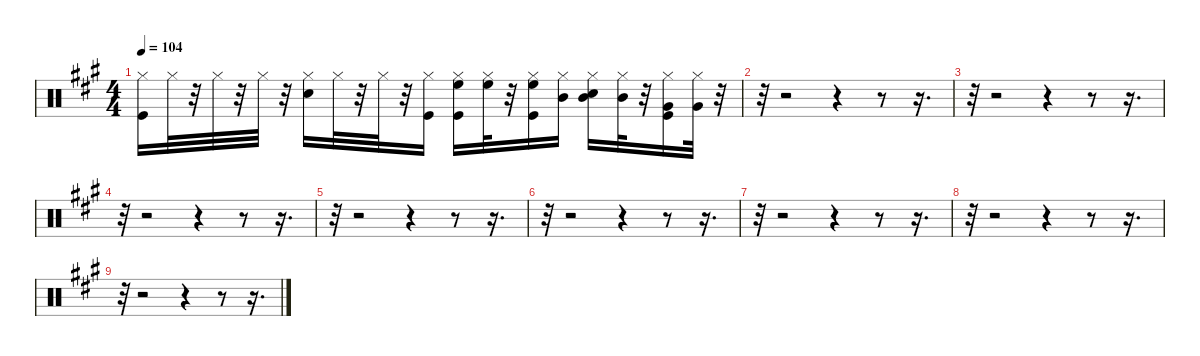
\defaultSystemsLayout 4
\hideDynamics
\bracketExtendMode nobrackets
\singleTrackTrackNamePolicy hidden
\multiTrackTrackNamePolicy hidden
\otherSystemsTrackNameOrientation horizontal
\track ("Drums   " "drm.") {instrument percussion}
\staff {score}
\articulation defaults
\ts (4 4)
\tempo 104
\clef neutral
\ks a
("Kick (hit)"{acc forcenatural} "Hi-Hat (closed)"{acc forcenatural}).16{dy f beam Down} "Hi-Hat (closed)"{acc forcenatural}.32{dy mp beam Down} r.32{beam Down} "Hi-Hat (closed)"{acc forcenatural}.32{dy f beam Down} r.32{beam Down} "Hi-Hat (closed)"{acc forcenatural}.32{beam Down} r.32{beam Down} ("Snare (hit) 2"{acc forcenatural} "Hi-Hat (closed)"{acc forcenatural}).16{dy fff beam Down} "Hi-Hat (closed)"{acc forcenatural}.32{dy mp beam Down} r.32{beam Down} "Hi-Hat (closed)"{acc forcenatural}.32{dy f beam Down} r.32{beam Down} ("Kick (hit)"{acc forcenatural} "Hi-Hat (closed)"{acc forcenatural}).16{dy mf beam Down} ("Kick (hit)"{acc forcenatural} "Hi-Hat (closed)"{acc forcenatural} "High Floor Tom (hit)"{acc forcenatural}).16{dy f beam Down} ("Hi-Hat (closed)"{acc forcenatural} "High Floor Tom (hit)"{acc forcenatural}).32{dy mp beam Down} r.32{beam Down} ("Kick (hit)"{acc forcenatural} "Hi-Hat (closed)"{acc forcenatural} "High Floor Tom (hit)"{acc forcenatural}).16{dy f beam Down} ("Hi-Hat (closed)"{acc forcenatural} "Mid Tom (hit)"{acc forcenatural}).16{beam Down} ("Snare (hit) 2"{acc forcenatural} "Hi-Hat (closed)"{acc forcenatural} "Mid Tom (hit)"{acc forcenatural}).16{dy fff beam Down} ("Hi-Hat (closed)"{acc forcenatural} "Mid Tom (hit)"{acc forcenatural}).32{dy mp beam Down} r.32{beam Down} ("Kick (hit)"{acc forcenatural} "Hi-Hat (closed)"{acc forcenatural} "Very Low Tom (hit)"{acc forcenatural}).16{dy f beam Down} ("Hi-Hat (closed)"{acc forcenatural} "Very Low Tom (hit)"{acc forcenatural}).32{beam Down} r.32{beam Down} |
r.32{beam Down} r.2{beam Down} r.4{beam Down} r.8{beam Down} r.16{d beam Down} |
r.32{beam Down} r.2{beam Down} r.4{beam Down} r.8{beam Down} r.16{d beam Down} |
r.32{beam Down} r.2{beam Down} r.4{beam Down} r.8{beam Down} r.16{d beam Down} |
r.32{beam Down} r.2{beam Down} r.4{beam Down} r.8{beam Down} r.16{d beam Down} |
r.32{beam Down} r.2{beam Down} r.4{beam Down} r.8{beam Down} r.16{d beam Down} |
r.32{beam Down} r.2{beam Down} r.4{beam Down} r.8{beam Down} r.16{d beam Down} |
r.32{beam Down} r.2{beam Down} r.4{beam Down} r.8{beam Down} r.16{d beam Down} |
r.32{beam Down} r.2{beam Down} r.4{beam Down} r.8{beam Down} r.16{d beam Down}
